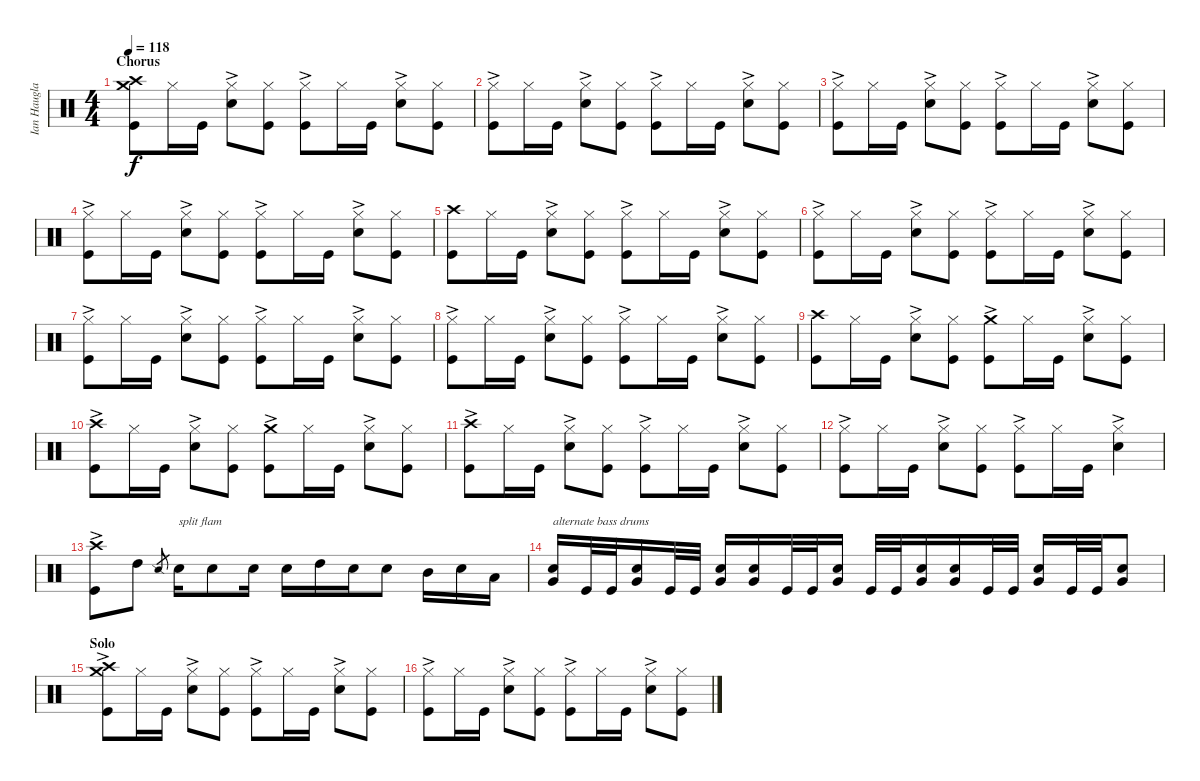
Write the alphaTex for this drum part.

\track ("Ian Haugland - Tama Imperialstar Kit - " "Ian Haugla") {instrument percussion}
\staff {score}
\articulation defaults
\ts (4 4)
\section ("" "Chorus")
\tempo 118
\clef neutral
\ks c
("Crash high (hit)" "Crash medium (hit)" "Kick (hit)").8{dy f} "Hi-Hat (closed)".16 "Kick (hit)".16 ("Hi-Hat (closed)"{ac} "Snare (hit) 2").8 ("Hi-Hat (closed)" "Kick (hit)").8 ("Hi-Hat (closed)"{ac} "Kick (hit)").8 "Hi-Hat (closed)".16 "Kick (hit)".16 ("Hi-Hat (closed)"{ac} "Snare (hit) 2").8 ("Hi-Hat (closed)" "Kick (hit)").8 |
("Hi-Hat (closed)"{ac} "Kick (hit)").8 "Hi-Hat (closed)".16 "Kick (hit)".16 ("Hi-Hat (closed)"{ac} "Snare (hit) 2").8 ("Hi-Hat (closed)" "Kick (hit)").8 ("Hi-Hat (closed)"{ac} "Kick (hit)").8 "Hi-Hat (closed)".16 "Kick (hit)".16 ("Hi-Hat (closed)"{ac} "Snare (hit) 2").8 ("Hi-Hat (closed)" "Kick (hit)").8 |
("Hi-Hat (closed)"{ac} "Kick (hit)").8 "Hi-Hat (closed)".16 "Kick (hit)".16 ("Hi-Hat (closed)"{ac} "Snare (hit) 2").8 ("Hi-Hat (closed)" "Kick (hit)").8 ("Hi-Hat (closed)"{ac} "Kick (hit)").8 "Hi-Hat (closed)".16 "Kick (hit)".16 ("Hi-Hat (closed)"{ac} "Snare (hit) 2").8 ("Hi-Hat (closed)" "Kick (hit)").8 |
("Hi-Hat (closed)"{ac} "Kick (hit)").8 "Hi-Hat (closed)".16 "Kick (hit)".16 ("Hi-Hat (closed)"{ac} "Snare (hit) 2").8 ("Hi-Hat (closed)" "Kick (hit)").8 ("Hi-Hat (closed)"{ac} "Kick (hit)").8 "Hi-Hat (closed)".16 "Kick (hit)".16 ("Hi-Hat (closed)"{ac} "Snare (hit) 2").8 ("Hi-Hat (closed)" "Kick (hit)").8 |
("Crash high (hit)" "Kick (hit)").8 "Hi-Hat (closed)".16 "Kick (hit)".16 ("Hi-Hat (closed)"{ac} "Snare (hit) 2").8 ("Hi-Hat (closed)" "Kick (hit)").8 ("Hi-Hat (closed)"{ac} "Kick (hit)").8 "Hi-Hat (closed)".16 "Kick (hit)".16 ("Hi-Hat (closed)"{ac} "Snare (hit) 2").8 ("Hi-Hat (closed)" "Kick (hit)").8 |
("Hi-Hat (closed)"{ac} "Kick (hit)").8 "Hi-Hat (closed)".16 "Kick (hit)".16 ("Hi-Hat (closed)"{ac} "Snare (hit) 2").8 ("Hi-Hat (closed)" "Kick (hit)").8 ("Hi-Hat (closed)"{ac} "Kick (hit)").8 "Hi-Hat (closed)".16 "Kick (hit)".16 ("Hi-Hat (closed)"{ac} "Snare (hit) 2").8 ("Hi-Hat (closed)" "Kick (hit)").8 |
("Hi-Hat (closed)"{ac} "Kick (hit)").8 "Hi-Hat (closed)".16 "Kick (hit)".16 ("Hi-Hat (closed)"{ac} "Snare (hit) 2").8 ("Hi-Hat (closed)" "Kick (hit)").8 ("Hi-Hat (closed)"{ac} "Kick (hit)").8 "Hi-Hat (closed)".16 "Kick (hit)".16 ("Hi-Hat (closed)"{ac} "Snare (hit) 2").8 ("Hi-Hat (closed)" "Kick (hit)").8 |
("Hi-Hat (closed)"{ac} "Kick (hit)").8 "Hi-Hat (closed)".16 "Kick (hit)".16 ("Hi-Hat (closed)"{ac} "Snare (hit) 2").8 ("Hi-Hat (closed)" "Kick (hit)").8 ("Hi-Hat (closed)"{ac} "Kick (hit)").8 "Hi-Hat (closed)".16 "Kick (hit)".16 ("Hi-Hat (closed)"{ac} "Snare (hit) 2").8 ("Hi-Hat (closed)" "Kick (hit)").8 |
("Crash high (hit)" "Kick (hit)").8 "Hi-Hat (closed)".16 "Kick (hit)".16 ("Hi-Hat (closed)"{ac} "Snare (hit) 2").8 ("Hi-Hat (closed)" "Kick (hit)").8 ("Crash medium (hit)"{ac} "Kick (hit)").8 "Hi-Hat (closed)".16 "Kick (hit)".16 ("Hi-Hat (closed)"{ac} "Snare (hit) 2").8 ("Hi-Hat (closed)" "Kick (hit)").8 |
("Crash high (hit)"{ac} "Kick (hit)").8 "Hi-Hat (closed)".16 "Kick (hit)".16 ("Hi-Hat (closed)"{ac} "Snare (hit) 2").8 ("Hi-Hat (closed)" "Kick (hit)").8 ("Crash medium (hit)"{ac} "Kick (hit)").8 "Hi-Hat (closed)".16 "Kick (hit)".16 ("Hi-Hat (closed)"{ac} "Snare (hit) 2").8 ("Hi-Hat (closed)" "Kick (hit)").8 |
("Crash high (hit)"{ac} "Kick (hit)").8 "Hi-Hat (closed)".16 "Kick (hit)".16 ("Hi-Hat (closed)"{ac} "Snare (hit) 2").8 ("Hi-Hat (closed)" "Kick (hit)").8 ("Hi-Hat (closed)"{ac} "Kick (hit)").8 "Hi-Hat (closed)".16 "Kick (hit)".16 ("Hi-Hat (closed)"{ac} "Snare (hit) 2").8 ("Hi-Hat (closed)" "Kick (hit)").8 |
("Hi-Hat (closed)"{ac} "Kick (hit)").8 "Hi-Hat (closed)".16 "Kick (hit)".16 ("Hi-Hat (closed)"{ac} "Snare (hit) 2").8 ("Hi-Hat (closed)" "Kick (hit)").8 ("Hi-Hat (closed)"{ac} "Kick (hit)").8 "Hi-Hat (closed)".16 "Kick (hit)".16 ("Hi-Hat (closed)"{ac} "Snare (hit) 2").4 |
("Crash high (hit)"{ac} "Kick (hit)").8 "High Tom (hit)".8 "Snare (side stick) 2".8{gr} "Snare (hit) 2".16{txt "split flam"} "Snare (hit) 2".8 "Snare (hit) 2".16 "Snare (hit) 2".16 "High Tom (hit)".16 "Snare (hit) 2".16 "Snare (hit) 2".8 "Mid Tom (hit)".16 "Snare (hit) 2".16 "Low Tom (hit)".16 |
("Snare (hit) 2" "Very Low Tom (hit)").16{txt "alternate bass drums"} "Kick (hit)".32 "Kick (hit)".32 ("Snare (hit) 2" "Very Low Tom (hit)").16 "Kick (hit)".32 "Kick (hit)".32 ("Snare (hit) 2" "Very Low Tom (hit)").16 ("Snare (hit) 2" "Very Low Tom (hit)").16 "Kick (hit)".32 "Kick (hit)".32 ("Snare (hit) 2" "Very Low Tom (hit)").16 "Kick (hit)".32 "Kick (hit)".32 ("Snare (hit) 2" "Very Low Tom (hit)").16 ("Snare (hit) 2" "Very Low Tom (hit)").16 "Kick (hit)".32 "Kick (hit)".32 ("Snare (hit) 2" "Very Low Tom (hit)").16 "Kick (hit)".32 "Kick (hit)".32 ("Snare (hit) 2" "Very Low Tom (hit)").8 |
\section ("" "Solo")
("Crash high (hit)"{ac} "Crash medium (hit)" "Kick (hit)").8 "Hi-Hat (closed)".16 "Kick (hit)".16 ("Hi-Hat (closed)"{ac} "Snare (hit) 2").8 ("Hi-Hat (closed)" "Kick (hit)").8 ("Hi-Hat (closed)"{ac} "Kick (hit)").8 "Hi-Hat (closed)".16 "Kick (hit)".16 ("Hi-Hat (closed)"{ac} "Snare (hit) 2").8 ("Hi-Hat (closed)" "Kick (hit)").8 |
("Hi-Hat (closed)"{ac} "Kick (hit)").8 "Hi-Hat (closed)".16 "Kick (hit)".16 ("Hi-Hat (closed)"{ac} "Snare (hit) 2").8 ("Hi-Hat (closed)" "Kick (hit)").8 ("Hi-Hat (closed)"{ac} "Kick (hit)").8 "Hi-Hat (closed)".16 "Kick (hit)".16 ("Hi-Hat (closed)"{ac} "Snare (hit) 2").8 ("Hi-Hat (closed)" "Kick (hit)").8
